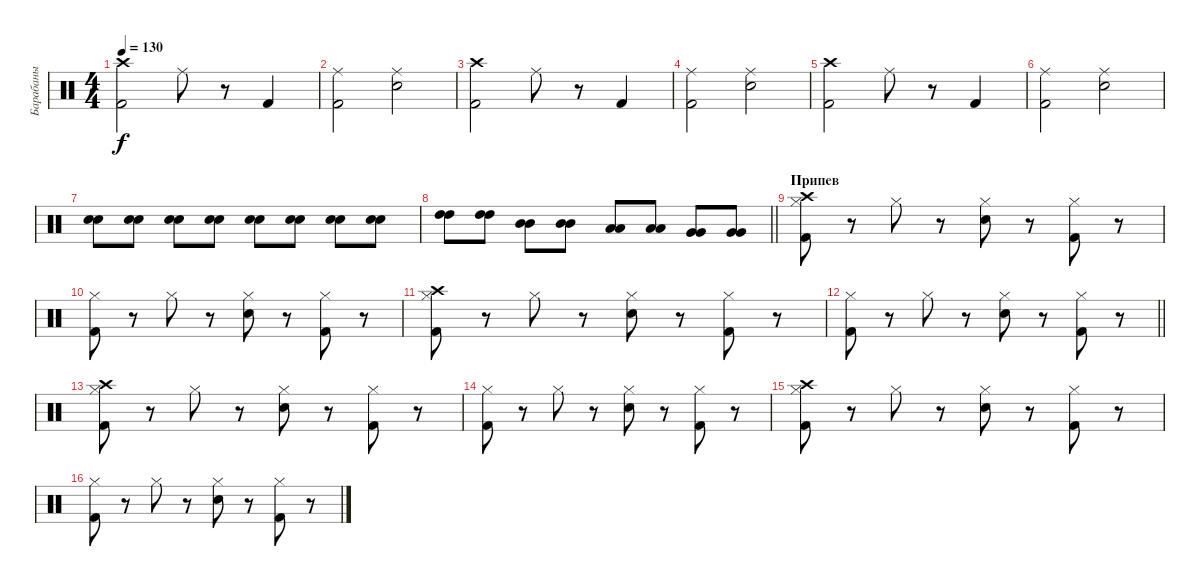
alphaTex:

\track ("Барабаны" "Барабаны") {instrument percussion}
\staff {score}
\articulation defaults
\ts (4 4)
\tempo 130
\clef neutral
\ks c
("Kick (hit) 2" "Crash high (hit)").2{dy f} "Ride (middle)".8 r.8 "Kick (hit) 2".4 |
("Kick (hit) 2" "Ride (middle)").2 ("Electric Snare (hit)" "Ride (middle)").2 |
("Kick (hit) 2" "Crash high (hit)").2 "Ride (middle)".8 r.8 "Kick (hit) 2".4 |
("Kick (hit) 2" "Ride (middle)").2 ("Electric Snare (hit)" "Ride (middle)").2 |
("Kick (hit) 2" "Crash high (hit)").2 "Ride (middle)".8 r.8 "Kick (hit) 2".4 |
("Kick (hit) 2" "Ride (middle)").2 ("Electric Snare (hit)" "Ride (middle)").2 |
("Electric Snare (hit)" "Electric Snare (hit)").8{volume 1} ("Electric Snare (hit)" "Electric Snare (hit)").8{volume 3} ("Electric Snare (hit)" "Electric Snare (hit)").8{volume 5} ("Electric Snare (hit)" "Electric Snare (hit)").8{volume 7} ("Electric Snare (hit)" "Electric Snare (hit)").8{volume 9} ("Electric Snare (hit)" "Electric Snare (hit)").8{volume 11} ("Electric Snare (hit)" "Electric Snare (hit)").8{volume 13} ("Electric Snare (hit)" "Electric Snare (hit)").8{volume 16} |
\barLineRight lightlight
("High Tom (hit)" "High Tom (hit)").8 ("High Tom (hit)" "High Tom (hit)").8 ("Mid Tom (hit)" "Mid Tom (hit)").8 ("Mid Tom (hit)" "Mid Tom (hit)").8 ("Low Tom (hit)" "Low Tom (hit)").8 ("Low Tom (hit)" "Low Tom (hit)").8 ("Very Low Tom (hit)" "Very Low Tom (hit)").8 ("Very Low Tom (hit)" "Very Low Tom (hit)").8 |
\section ("" "Припев")
("Kick (hit) 2" "Hi-Hat (closed)" "Crash high (hit)").8 r.8 "Hi-Hat (closed)".8 r.8 ("Hi-Hat (closed)" "Electric Snare (hit)").8 r.8 ("Hi-Hat (closed)" "Kick (hit) 2").8 r.8 |
("Kick (hit) 2" "Hi-Hat (closed)").8 r.8 "Hi-Hat (closed)".8 r.8 ("Hi-Hat (closed)" "Electric Snare (hit)").8 r.8 ("Hi-Hat (closed)" "Kick (hit) 2").8 r.8 |
("Kick (hit) 2" "Hi-Hat (closed)" "Crash high (hit)").8 r.8 "Hi-Hat (closed)".8 r.8 ("Hi-Hat (closed)" "Electric Snare (hit)").8 r.8 ("Hi-Hat (closed)" "Kick (hit) 2").8 r.8 |
\barLineRight lightlight
("Kick (hit) 2" "Hi-Hat (closed)").8 r.8 "Hi-Hat (closed)".8 r.8 ("Hi-Hat (closed)" "Electric Snare (hit)").8 r.8 ("Hi-Hat (closed)" "Kick (hit) 2").8 r.8 |
("Kick (hit) 2" "Hi-Hat (closed)" "Crash high (hit)").8 r.8 "Hi-Hat (closed)".8 r.8 ("Hi-Hat (closed)" "Electric Snare (hit)").8 r.8 ("Hi-Hat (closed)" "Kick (hit) 2").8 r.8 |
("Kick (hit) 2" "Hi-Hat (closed)").8 r.8 "Hi-Hat (closed)".8 r.8 ("Hi-Hat (closed)" "Electric Snare (hit)").8 r.8 ("Hi-Hat (closed)" "Kick (hit) 2").8 r.8 |
("Kick (hit) 2" "Hi-Hat (closed)" "Crash high (hit)").8 r.8 "Hi-Hat (closed)".8 r.8 ("Hi-Hat (closed)" "Electric Snare (hit)").8 r.8 ("Hi-Hat (closed)" "Kick (hit) 2").8 r.8 |
("Kick (hit) 2" "Hi-Hat (closed)").8 r.8 "Hi-Hat (closed)".8 r.8 ("Hi-Hat (closed)" "Electric Snare (hit)").8 r.8 ("Hi-Hat (closed)" "Kick (hit) 2").8 r.8
